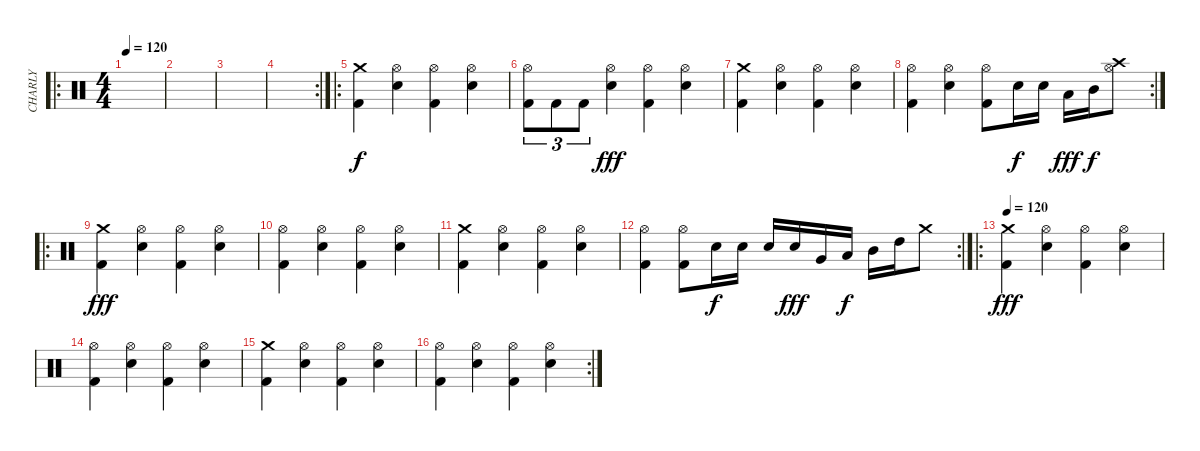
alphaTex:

\track ("CHARLY" "CHARLY") {instrument percussion}
\staff {score}
\articulation defaults
\ro
\ts (4 4)
\tempo 120
\clef neutral
\ks c
|
|
|
\rc 2
|
\ro
("Kick (hit) 2" "Crash medium (hit)").4 ("Hi-Hat (open)" "Snare (hit) 2").4 ("Hi-Hat (open)" "Kick (hit) 2").4 ("Hi-Hat (open)" "Snare (hit) 2").4 |
("Hi-Hat (open)" "Kick (hit) 2").8{tu (3 2)} "Kick (hit) 2".8{tu (3 2) dy f} "Kick (hit) 2".8{tu (3 2)} ("Hi-Hat (open)" "Snare (hit) 2").4{dy fff} ("Hi-Hat (open)" "Kick (hit) 2").4 ("Hi-Hat (open)" "Snare (hit) 2").4 |
("Kick (hit) 2" "Crash medium (hit)").4 ("Hi-Hat (open)" "Snare (hit) 2").4 ("Hi-Hat (open)" "Kick (hit) 2").4 ("Hi-Hat (open)" "Snare (hit) 2").4 |
\rc 2
("Hi-Hat (open)" "Kick (hit) 2").4 ("Hi-Hat (open)" "Snare (hit) 2").4 ("Hi-Hat (open)" "Kick (hit) 2").8 "Snare (hit) 2".16{dy f} "Snare (hit) 2".16 "Low Tom (hit)".16{dy fff} "Mid Tom (hit)".16{dy f} ("Crash high (hit)" "Hi-Hat (open)").8 |
\ro
("Kick (hit) 2" "Crash medium (hit)").4{dy fff} ("Hi-Hat (open)" "Snare (hit) 2").4 ("Hi-Hat (open)" "Kick (hit) 2").4 ("Hi-Hat (open)" "Snare (hit) 2").4 |
("Hi-Hat (open)" "Kick (hit) 2").4 ("Hi-Hat (open)" "Snare (hit) 2").4 ("Hi-Hat (open)" "Kick (hit) 2").4 ("Hi-Hat (open)" "Snare (hit) 2").4 |
("Kick (hit) 2" "Crash medium (hit)").4 ("Hi-Hat (open)" "Snare (hit) 2").4 ("Hi-Hat (open)" "Kick (hit) 2").4 ("Hi-Hat (open)" "Snare (hit) 2").4 |
\rc 2
("Hi-Hat (open)" "Kick (hit) 2").4 ("Hi-Hat (open)" "Kick (hit) 2").8 "Electric Snare (hit)".16{dy f} "Snare (hit) 2".16 "Electric Snare (hit)".16 "Snare (hit) 2".16{dy fff} "Very Low Tom (hit)".16 "Low Tom (hit)".16{dy f} "Mid Tom (hit)".16 "High Tom (hit)".16 "Crash medium (hit)".8 |
\ro
\tempo 120
("Kick (hit) 2" "Crash medium (hit)").4{dy fff} ("Hi-Hat (open)" "Snare (hit) 2").4 ("Hi-Hat (open)" "Kick (hit) 2").4 ("Hi-Hat (open)" "Snare (hit) 2").4 |
("Hi-Hat (open)" "Kick (hit) 2").4 ("Hi-Hat (open)" "Snare (hit) 2").4 ("Hi-Hat (open)" "Kick (hit) 2").4 ("Hi-Hat (open)" "Snare (hit) 2").4 |
("Kick (hit) 2" "Crash medium (hit)").4 ("Hi-Hat (open)" "Snare (hit) 2").4 ("Hi-Hat (open)" "Kick (hit) 2").4 ("Hi-Hat (open)" "Snare (hit) 2").4 |
\rc 2
("Hi-Hat (open)" "Kick (hit) 2").4 ("Hi-Hat (open)" "Snare (hit) 2").4 ("Hi-Hat (open)" "Kick (hit) 2").4 ("Hi-Hat (open)" "Snare (hit) 2").4
